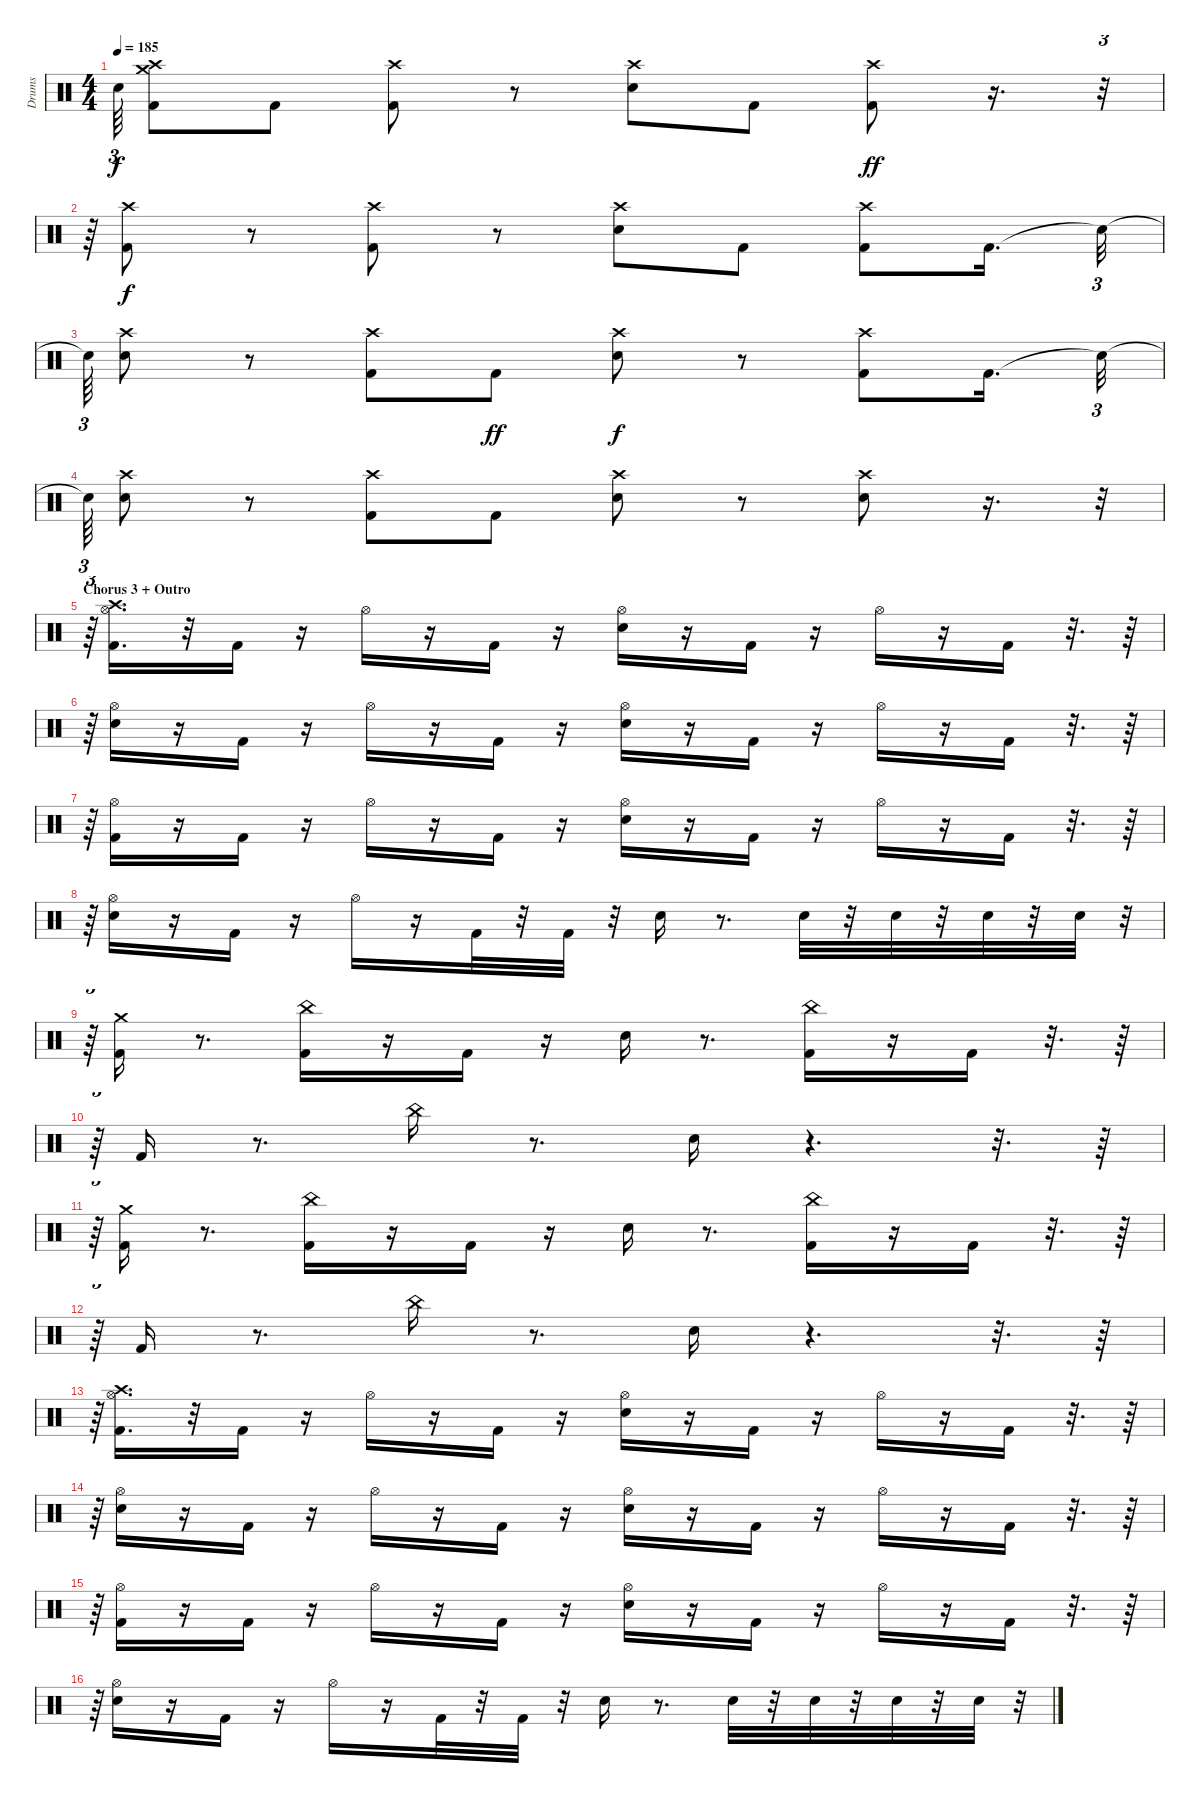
\track ("Drums" "Drums") {instrument percussion}
\staff {score}
\articulation defaults
\ts (4 4)
\tempo 185
\clef neutral
\ks c "Snare (hit)"{t}.64{tu (3 2) dy f}
("Kick (hit) 2" "Crash medium (hit)" "Crash high (hit)").8 "Kick (hit) 2".8 ("Kick (hit) 2" "Crash high (hit)").8 r.8 ("Crash high (hit)" "Electric Snare (hit)").8 "Kick (hit) 2".8 ("Kick (hit) 2" "Crash high (hit)").8{dy ff} r.16{d} r.32{tu (3 2)} |
r.64{tu (3 2)} ("Crash high (hit)" "Kick (hit) 2").8{dy f} r.8 ("Kick (hit) 2" "Crash high (hit)").8 r.8 ("Electric Snare (hit)" "Crash high (hit)").8 "Kick (hit) 2".8 ("Crash high (hit)" "Kick (hit) 2").8 "Kick (hit) 2".16{d} "Snare (hit)"{t}.32{tu (3 2)} |
"Snare (hit)"{t}.64{tu (3 2)} ("Electric Snare (hit)" "Crash high (hit)").8 r.8 ("Kick (hit) 2" "Crash high (hit)").8 "Kick (hit) 2".8{dy ff} ("Crash high (hit)" "Electric Snare (hit)").8{dy f} r.8 ("Kick (hit) 2" "Crash high (hit)").8 "Kick (hit) 2".16{d} "Snare (hit)"{t}.32{tu (3 2)} |
"Snare (hit)"{t}.64{tu (3 2)} ("Crash high (hit)" "Electric Snare (hit)").8 r.8 ("Kick (hit) 2" "Crash high (hit)").8 "Kick (hit) 2".8 ("Crash high (hit)" "Electric Snare (hit)").8 r.8 ("Crash high (hit)" "Electric Snare (hit)").8 r.16{d} r.32{tu (3 2)} |
\section ("" "Chorus 3 + Outro")
r.64{tu (3 2)} ("Hi-Hat (open)" "Kick (hit) 2" "Crash high (hit)").16{d} r.32 "Kick (hit) 2".16 r.16 "Hi-Hat (open)".16 r.16 "Kick (hit) 2".16 r.16 ("Electric Snare (hit)" "Hi-Hat (open)").16 r.16 "Kick (hit) 2".16 r.16 "Hi-Hat (open)".16 r.16 "Kick (hit) 2".16 r.32{d} r.64 |
r.64{tu (3 2)} ("Electric Snare (hit)" "Hi-Hat (open)").16 r.16 "Kick (hit) 2".16 r.16 "Hi-Hat (open)".16 r.16 "Kick (hit) 2".16 r.16 ("Hi-Hat (open)" "Electric Snare (hit)").16 r.16 "Kick (hit) 2".16 r.16 "Hi-Hat (open)".16 r.16 "Kick (hit) 2".16 r.32{d} r.64 |
r.64{tu (3 2)} ("Kick (hit) 2" "Hi-Hat (open)").16 r.16 "Kick (hit) 2".16 r.16 "Hi-Hat (open)".16 r.16 "Kick (hit) 2".16 r.16 ("Hi-Hat (open)" "Electric Snare (hit)").16 r.16 "Kick (hit) 2".16 r.16 "Hi-Hat (open)".16 r.16 "Kick (hit) 2".16 r.32{d} r.64 |
r.64{tu (3 2)} ("Electric Snare (hit)" "Hi-Hat (open)").16 r.16 "Kick (hit) 2".16 r.16 "Hi-Hat (open)".16 r.16 "Kick (hit) 2".32 r.32 "Kick (hit) 2".32 r.32 "Electric Snare (hit)".16 r.8{d} "Electric Snare (hit)".32 r.32 "Electric Snare (hit)".32 r.32 "Electric Snare (hit)".32 r.32 "Electric Snare (hit)".32 r.32{tu (3 2)} |
r.64{tu (3 2)} ("Kick (hit) 2" "Crash medium (hit)").16 r.8{d} ("China (hit)" "Kick (hit) 2").16 r.16 "Kick (hit) 2".16 r.16 "Electric Snare (hit)".16 r.8{d} ("Kick (hit) 2" "China (hit)").16 r.16 "Kick (hit) 2".16 r.32{d} r.64 |
r.64{tu (3 2)} "Kick (hit) 2".16 r.8{d} "China (hit)".16 r.8{d} "Electric Snare (hit)".16 r.4{d} r.32{d} r.64 |
r.64{tu (3 2)} ("Crash medium (hit)" "Kick (hit) 2").16 r.8{d} ("China (hit)" "Kick (hit) 2").16 r.16 "Kick (hit) 2".16 r.16 "Electric Snare (hit)".16 r.8{d} ("China (hit)" "Kick (hit) 2").16 r.16 "Kick (hit) 2".16 r.32{d} r.64 |
r.64{tu (3 2)} "Kick (hit) 2".16 r.8{d} "China (hit)".16 r.8{d} "Electric Snare (hit)".16 r.4{d} r.32{d} r.64 |
r.64{tu (3 2)} ("Hi-Hat (open)" "Kick (hit) 2" "Crash high (hit)").16{d} r.32 "Kick (hit) 2".16 r.16 "Hi-Hat (open)".16 r.16 "Kick (hit) 2".16 r.16 ("Hi-Hat (open)" "Electric Snare (hit)").16 r.16 "Kick (hit) 2".16 r.16 "Hi-Hat (open)".16 r.16 "Kick (hit) 2".16 r.32{d} r.64 |
r.64{tu (3 2)} ("Electric Snare (hit)" "Hi-Hat (open)").16 r.16 "Kick (hit) 2".16 r.16 "Hi-Hat (open)".16 r.16 "Kick (hit) 2".16 r.16 ("Electric Snare (hit)" "Hi-Hat (open)").16 r.16 "Kick (hit) 2".16 r.16 "Hi-Hat (open)".16 r.16 "Kick (hit) 2".16 r.32{d} r.64 |
r.64{tu (3 2)} ("Hi-Hat (open)" "Kick (hit) 2").16 r.16 "Kick (hit) 2".16 r.16 "Hi-Hat (open)".16 r.16 "Kick (hit) 2".16 r.16 ("Hi-Hat (open)" "Electric Snare (hit)").16 r.16 "Kick (hit) 2".16 r.16 "Hi-Hat (open)".16 r.16 "Kick (hit) 2".16 r.32{d} r.64 |
r.64{tu (3 2)} ("Hi-Hat (open)" "Electric Snare (hit)").16 r.16 "Kick (hit) 2".16 r.16 "Hi-Hat (open)".16 r.16 "Kick (hit) 2".32 r.32 "Kick (hit) 2".32 r.32 "Electric Snare (hit)".16 r.8{d} "Electric Snare (hit)".32 r.32 "Electric Snare (hit)".32 r.32 "Electric Snare (hit)".32 r.32 "Electric Snare (hit)".32 r.32{tu (3 2)}
